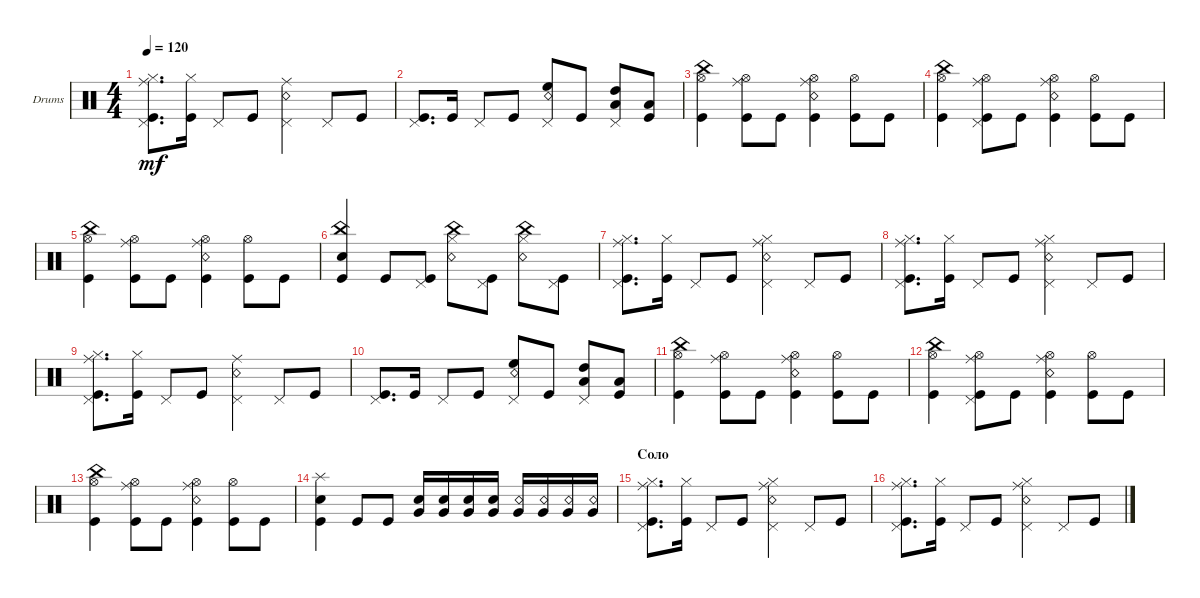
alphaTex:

\defaultSystemsLayout 4
\bracketExtendMode groupsimilarinstruments
\firstSystemTrackNameOrientation horizontal
\otherSystemsTrackNameOrientation horizontal
\track ("Drumkit" "Drums") {instrument percussion}
\staff {score}
\articulation defaults
\ts (4 4)
\tempo 120
\clef neutral
\ks c
("Kick (hit)" "Ride (middle)" "Hi-Hat (closed)" "Pedal Hi-Hat (hit)").8{d dy mf} ("Kick (hit)" "Hi-Hat (closed)").16 "Pedal Hi-Hat (hit)".8 "Kick (hit)".8 ("Snare (rim shot)" "Ride (middle)" "Pedal Hi-Hat (hit)").4 "Pedal Hi-Hat (hit)".8 "Kick (hit)".8 |
("Kick (hit)" "Pedal Hi-Hat (hit)").8{d} "Kick (hit)".16 "Pedal Hi-Hat (hit)".8 "Kick (hit)".8 ("Snare (rim shot)" "Pedal Hi-Hat (hit)" "High Floor Tom (hit)").8 "Kick (hit)".8 ("High Tom (hit)" "Pedal Hi-Hat (hit)" "Low Tom (hit)").8 ("Kick (hit)" "Low Tom (hit)").8 |
("Kick (hit)" "Hi-Hat (open)" "China (hit)").4 ("Kick (hit)" "Hi-Hat (open)" "Ride (middle)").8 "Kick (hit)".8 ("Kick (hit)" "Snare (rim shot)" "Hi-Hat (open)" "Ride (middle)").4 ("Kick (hit)" "Hi-Hat (open)").8 "Kick (hit)".8 |
("Kick (hit)" "Hi-Hat (open)" "China (hit)").4 ("Kick (hit)" "Hi-Hat (open)" "Pedal Hi-Hat (hit)" "Ride (middle)").8 "Kick (hit)".8 ("Kick (hit)" "Snare (rim shot)" "Hi-Hat (open)" "Ride (middle)").4 ("Kick (hit)" "Hi-Hat (open)").8 "Kick (hit)".8 |
("Kick (hit)" "Hi-Hat (open)" "China (hit)").4 ("Kick (hit)" "Hi-Hat (open)" "Ride (middle)").8 "Kick (hit)".8 ("Kick (hit)" "Snare (rim shot)" "Hi-Hat (open)" "Ride (middle)").4 ("Kick (hit)" "Hi-Hat (open)").8 "Kick (hit)".8 |
("Kick (hit)" "Snare (hit) 2" "China (hit)").4 "Kick (hit)".8 ("Kick (hit)" "Pedal Hi-Hat (hit)").8 ("Snare (rim shot)" "Hi-Hat (closed)" "China (hit)").8 ("Kick (hit)" "Pedal Hi-Hat (hit)").8 ("Snare (rim shot)" "Hi-Hat (closed)" "China (hit)").8 ("Kick (hit)" "Pedal Hi-Hat (hit)").8 |
("Kick (hit)" "Ride (middle)" "Hi-Hat (closed)" "Pedal Hi-Hat (hit)").8{d} ("Kick (hit)" "Hi-Hat (closed)").16 "Pedal Hi-Hat (hit)".8 "Kick (hit)".8 ("Snare (rim shot)" "Ride (middle)" "Hi-Hat (closed)" "Pedal Hi-Hat (hit)").4 "Pedal Hi-Hat (hit)".8 "Kick (hit)".8 |
("Kick (hit)" "Ride (middle)" "Hi-Hat (closed)" "Pedal Hi-Hat (hit)").8{d} ("Kick (hit)" "Hi-Hat (closed)").16 "Pedal Hi-Hat (hit)".8 "Kick (hit)".8 ("Snare (rim shot)" "Ride (middle)" "Hi-Hat (closed)" "Pedal Hi-Hat (hit)").4 "Pedal Hi-Hat (hit)".8 "Kick (hit)".8 |
("Kick (hit)" "Ride (middle)" "Hi-Hat (closed)" "Pedal Hi-Hat (hit)").8{d} ("Kick (hit)" "Hi-Hat (closed)").16 "Pedal Hi-Hat (hit)".8 "Kick (hit)".8 ("Snare (rim shot)" "Ride (middle)" "Pedal Hi-Hat (hit)").4 "Pedal Hi-Hat (hit)".8 "Kick (hit)".8 |
("Kick (hit)" "Pedal Hi-Hat (hit)").8{d} "Kick (hit)".16 "Pedal Hi-Hat (hit)".8 "Kick (hit)".8 ("Snare (rim shot)" "Pedal Hi-Hat (hit)" "High Floor Tom (hit)").8 "Kick (hit)".8 ("High Tom (hit)" "Pedal Hi-Hat (hit)" "Low Tom (hit)").8 ("Kick (hit)" "Low Tom (hit)").8 |
("Kick (hit)" "Hi-Hat (open)" "China (hit)").4 ("Kick (hit)" "Hi-Hat (open)" "Ride (middle)").8 "Kick (hit)".8 ("Kick (hit)" "Snare (rim shot)" "Hi-Hat (open)" "Ride (middle)").4 ("Kick (hit)" "Hi-Hat (open)").8 "Kick (hit)".8 |
("Kick (hit)" "Hi-Hat (open)" "China (hit)").4 ("Kick (hit)" "Hi-Hat (open)" "Pedal Hi-Hat (hit)" "Ride (middle)").8 "Kick (hit)".8 ("Kick (hit)" "Snare (rim shot)" "Hi-Hat (open)" "Ride (middle)").4 ("Kick (hit)" "Hi-Hat (open)").8 "Kick (hit)".8 |
("Kick (hit)" "Hi-Hat (open)" "China (hit)").4 ("Kick (hit)" "Hi-Hat (open)" "Ride (middle)").8 "Kick (hit)".8 ("Kick (hit)" "Snare (rim shot)" "Hi-Hat (open)" "Ride (middle)").4 ("Kick (hit)" "Hi-Hat (open)").8 "Kick (hit)".8 |
("Kick (hit)" "Splash (hit)" "Snare (hit) 2").4 "Kick (hit)".8 "Kick (hit)".8 ("Snare (hit) 2" "Very Low Tom (hit)").16 ("Snare (hit) 2" "Very Low Tom (hit)").16 ("Snare (hit) 2" "Very Low Tom (hit)").16 ("Snare (hit) 2" "Very Low Tom (hit)").16 ("Snare (rim shot)" "Very Low Tom (hit)").16 ("Snare (rim shot)" "Very Low Tom (hit)").16 ("Snare (rim shot)" "Very Low Tom (hit)").16 ("Snare (rim shot)" "Very Low Tom (hit)").16 |
\section ("" "Соло")
("Kick (hit)" "Ride (middle)" "Hi-Hat (closed)" "Pedal Hi-Hat (hit)").8{d} ("Kick (hit)" "Hi-Hat (closed)").16 "Pedal Hi-Hat (hit)".8 "Kick (hit)".8 ("Snare (rim shot)" "Ride (middle)" "Hi-Hat (closed)" "Pedal Hi-Hat (hit)").4 "Pedal Hi-Hat (hit)".8 "Kick (hit)".8 |
("Kick (hit)" "Ride (middle)" "Hi-Hat (closed)" "Pedal Hi-Hat (hit)").8{d} ("Kick (hit)" "Hi-Hat (closed)").16 "Pedal Hi-Hat (hit)".8 "Kick (hit)".8 ("Snare (rim shot)" "Ride (middle)" "Hi-Hat (closed)" "Pedal Hi-Hat (hit)").4 "Pedal Hi-Hat (hit)".8 "Kick (hit)".8
